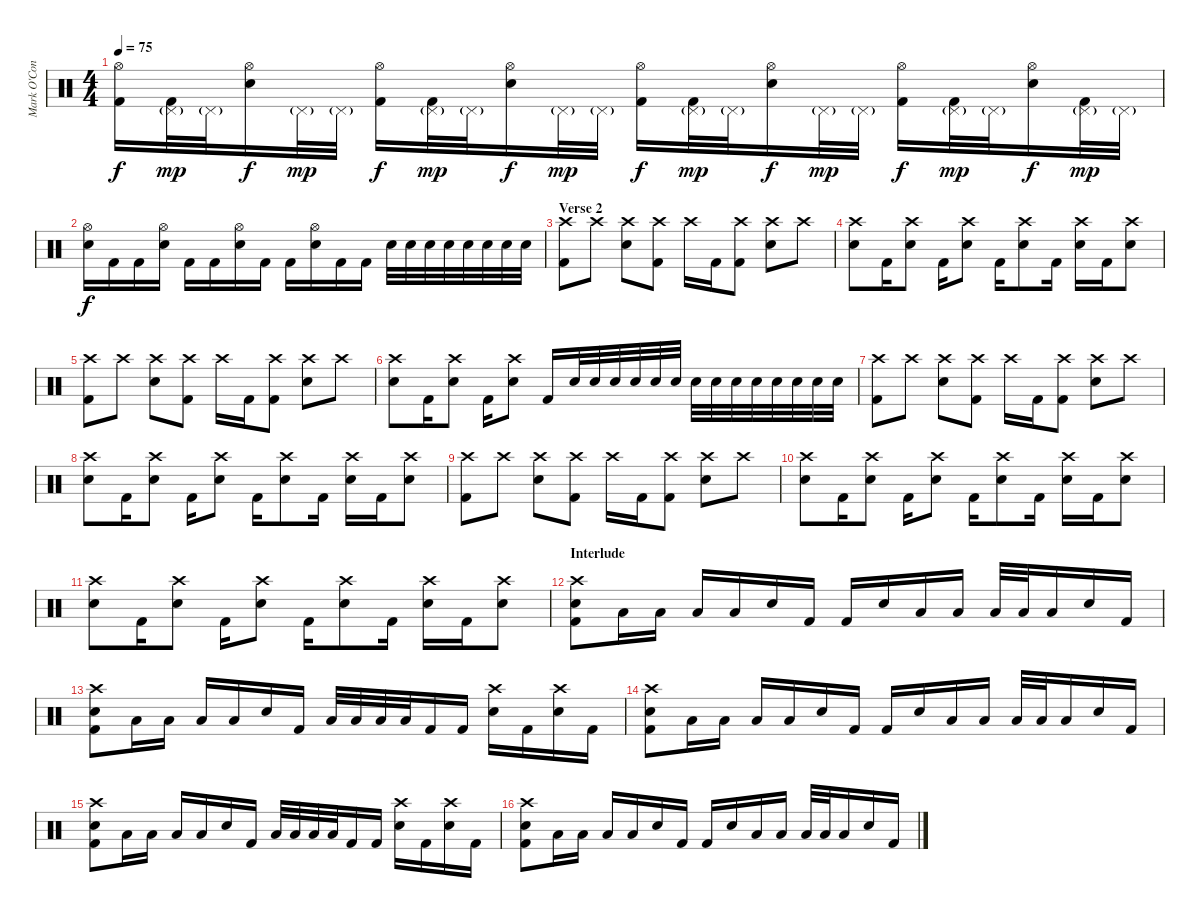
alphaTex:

\track ("Mark O'Connell (Drums)" "Mark O'Con") {instrument percussion}
\staff {score}
\articulation defaults
\ts (4 4)
\tempo 75
\clef neutral
\ks c
("Hi-Hat (open)" "Kick (hit) 2").16{dy f} ("Pedal Hi-Hat (hit)"{g} "Kick (hit) 2").32{dy mp} "Pedal Hi-Hat (hit)"{g}.32 ("Hi-Hat (open)" "Electric Snare (hit)").16{dy f} "Pedal Hi-Hat (hit)"{g}.32{dy mp} "Pedal Hi-Hat (hit)"{g}.32 ("Hi-Hat (open)" "Kick (hit) 2").16{dy f} ("Pedal Hi-Hat (hit)"{g} "Kick (hit) 2").32{dy mp} "Pedal Hi-Hat (hit)"{g}.32 ("Hi-Hat (open)" "Electric Snare (hit)").16{dy f} "Pedal Hi-Hat (hit)"{g}.32{dy mp} "Pedal Hi-Hat (hit)"{g}.32 ("Hi-Hat (open)" "Kick (hit) 2").16{dy f} ("Pedal Hi-Hat (hit)"{g} "Kick (hit) 2").32{dy mp} "Pedal Hi-Hat (hit)"{g}.32 ("Hi-Hat (open)" "Electric Snare (hit)").16{dy f} "Pedal Hi-Hat (hit)"{g}.32{dy mp} "Pedal Hi-Hat (hit)"{g}.32 ("Hi-Hat (open)" "Kick (hit) 2").16{dy f} ("Pedal Hi-Hat (hit)"{g} "Kick (hit) 2").32{dy mp} "Pedal Hi-Hat (hit)"{g}.32 ("Hi-Hat (open)" "Electric Snare (hit)").16{dy f} ("Pedal Hi-Hat (hit)"{g} "Kick (hit) 2").32{dy mp} "Pedal Hi-Hat (hit)"{g}.32 |
("Hi-Hat (open)" "Electric Snare (hit)").16{dy f} "Kick (hit) 2".16 "Kick (hit) 2".16 ("Hi-Hat (open)" "Electric Snare (hit)").16 "Kick (hit) 2".16 "Kick (hit) 2".16 ("Hi-Hat (open)" "Electric Snare (hit)").16 "Kick (hit) 2".16 "Kick (hit) 2".16 ("Hi-Hat (open)" "Electric Snare (hit)").16 "Kick (hit) 2".16 "Kick (hit) 2".16 "Electric Snare (hit)".32 "Electric Snare (hit)".32 "Electric Snare (hit)".32 "Electric Snare (hit)".32 "Electric Snare (hit)".32 "Electric Snare (hit)".32 "Electric Snare (hit)".32 "Electric Snare (hit)".32 |
\section ("" "Verse 2")
("Crash high (hit)" "Kick (hit) 2").8 "Crash high (hit)".8 ("Crash high (hit)" "Electric Snare (hit)").8 ("Crash high (hit)" "Kick (hit) 2").8 "Crash high (hit)".16 "Kick (hit) 2".16 ("Crash high (hit)" "Kick (hit) 2").8 ("Crash high (hit)" "Electric Snare (hit)").8 "Crash high (hit)".8 |
("Crash high (hit)" "Electric Snare (hit)").8 "Kick (hit) 2".16 ("Crash high (hit)" "Electric Snare (hit)").8 "Kick (hit) 2".16 ("Crash high (hit)" "Electric Snare (hit)").8 "Kick (hit) 2".16 ("Crash high (hit)" "Electric Snare (hit)").8 "Kick (hit) 2".16 ("Crash high (hit)" "Electric Snare (hit)").16 "Kick (hit) 2".16 ("Crash high (hit)" "Electric Snare (hit)").8 |
("Crash high (hit)" "Kick (hit) 2").8 "Crash high (hit)".8 ("Crash high (hit)" "Electric Snare (hit)").8 ("Crash high (hit)" "Kick (hit) 2").8 "Crash high (hit)".16 "Kick (hit) 2".16 ("Crash high (hit)" "Kick (hit) 2").8 ("Crash high (hit)" "Electric Snare (hit)").8 "Crash high (hit)".8 |
("Crash high (hit)" "Electric Snare (hit)").8 "Kick (hit) 2".16 ("Crash high (hit)" "Electric Snare (hit)").8 "Kick (hit) 2".16 ("Crash high (hit)" "Electric Snare (hit)").8 "Kick (hit) 2".16 "Electric Snare (hit)".32 "Electric Snare (hit)".32 "Electric Snare (hit)".32 "Electric Snare (hit)".32 "Electric Snare (hit)".32 "Electric Snare (hit)".32 "Electric Snare (hit)".32 "Electric Snare (hit)".32 "Electric Snare (hit)".32 "Electric Snare (hit)".32 "Electric Snare (hit)".32 "Electric Snare (hit)".32 "Electric Snare (hit)".32 "Electric Snare (hit)".32 |
("Crash high (hit)" "Kick (hit) 2").8 "Crash high (hit)".8 ("Crash high (hit)" "Electric Snare (hit)").8 ("Crash high (hit)" "Kick (hit) 2").8 "Crash high (hit)".16 "Kick (hit) 2".16 ("Crash high (hit)" "Kick (hit) 2").8 ("Crash high (hit)" "Electric Snare (hit)").8 "Crash high (hit)".8 |
("Crash high (hit)" "Electric Snare (hit)").8 "Kick (hit) 2".16 ("Crash high (hit)" "Electric Snare (hit)").8 "Kick (hit) 2".16 ("Crash high (hit)" "Electric Snare (hit)").8 "Kick (hit) 2".16 ("Crash high (hit)" "Electric Snare (hit)").8 "Kick (hit) 2".16 ("Crash high (hit)" "Electric Snare (hit)").16 "Kick (hit) 2".16 ("Crash high (hit)" "Electric Snare (hit)").8 |
("Crash high (hit)" "Kick (hit) 2").8 "Crash high (hit)".8 ("Crash high (hit)" "Electric Snare (hit)").8 ("Crash high (hit)" "Kick (hit) 2").8 "Crash high (hit)".16 "Kick (hit) 2".16 ("Crash high (hit)" "Kick (hit) 2").8 ("Crash high (hit)" "Electric Snare (hit)").8 "Crash high (hit)".8 |
("Crash high (hit)" "Electric Snare (hit)").8 "Kick (hit) 2".16 ("Crash high (hit)" "Electric Snare (hit)").8 "Kick (hit) 2".16 ("Crash high (hit)" "Electric Snare (hit)").8 "Kick (hit) 2".16 ("Crash high (hit)" "Electric Snare (hit)").8 "Kick (hit) 2".16 ("Crash high (hit)" "Electric Snare (hit)").16 "Kick (hit) 2".16 ("Crash high (hit)" "Electric Snare (hit)").8 |
("Crash high (hit)" "Electric Snare (hit)").8 "Kick (hit) 2".16 ("Crash high (hit)" "Electric Snare (hit)").8 "Kick (hit) 2".16 ("Crash high (hit)" "Electric Snare (hit)").8 "Kick (hit) 2".16 ("Crash high (hit)" "Electric Snare (hit)").8 "Kick (hit) 2".16 ("Crash high (hit)" "Electric Snare (hit)").16 "Kick (hit) 2".16 ("Crash high (hit)" "Electric Snare (hit)").8 |
\section ("" "Interlude")
("Crash high (hit)" "Electric Snare (hit)" "Kick (hit) 2").8 "Low Tom (hit)".16 "Low Tom (hit)".16 "Low Tom (hit)".16 "Low Tom (hit)".16 "Electric Snare (hit)".16 "Kick (hit) 2".16 "Kick (hit) 2".16 "Electric Snare (hit)".16 "Low Tom (hit)".16 "Low Tom (hit)".16 "Low Tom (hit)".32 "Low Tom (hit)".32 "Low Tom (hit)".16 "Electric Snare (hit)".16 "Kick (hit) 2".16 |
("Crash high (hit)" "Electric Snare (hit)" "Kick (hit) 2").8 "Low Tom (hit)".16 "Low Tom (hit)".16 "Low Tom (hit)".16 "Low Tom (hit)".16 "Electric Snare (hit)".16 "Kick (hit) 2".16 "Low Tom (hit)".32 "Low Tom (hit)".32 "Low Tom (hit)".32 "Low Tom (hit)".32 "Kick (hit) 2".16 "Kick (hit) 2".16 ("Crash high (hit)" "Electric Snare (hit)").16 "Kick (hit) 2".16 ("Crash high (hit)" "Electric Snare (hit)").16 "Kick (hit) 2".16 |
("Crash high (hit)" "Electric Snare (hit)" "Kick (hit) 2").8 "Low Tom (hit)".16 "Low Tom (hit)".16 "Low Tom (hit)".16 "Low Tom (hit)".16 "Electric Snare (hit)".16 "Kick (hit) 2".16 "Kick (hit) 2".16 "Electric Snare (hit)".16 "Low Tom (hit)".16 "Low Tom (hit)".16 "Low Tom (hit)".32 "Low Tom (hit)".32 "Low Tom (hit)".16 "Electric Snare (hit)".16 "Kick (hit) 2".16 |
("Crash high (hit)" "Electric Snare (hit)" "Kick (hit) 2").8 "Low Tom (hit)".16 "Low Tom (hit)".16 "Low Tom (hit)".16 "Low Tom (hit)".16 "Electric Snare (hit)".16 "Kick (hit) 2".16 "Low Tom (hit)".32 "Low Tom (hit)".32 "Low Tom (hit)".32 "Low Tom (hit)".32 "Kick (hit) 2".16 "Kick (hit) 2".16 ("Crash high (hit)" "Electric Snare (hit)").16 "Kick (hit) 2".16 ("Crash high (hit)" "Electric Snare (hit)").16 "Kick (hit) 2".16 |
("Crash high (hit)" "Electric Snare (hit)" "Kick (hit) 2").8 "Low Tom (hit)".16 "Low Tom (hit)".16 "Low Tom (hit)".16 "Low Tom (hit)".16 "Electric Snare (hit)".16 "Kick (hit) 2".16 "Kick (hit) 2".16 "Electric Snare (hit)".16 "Low Tom (hit)".16 "Low Tom (hit)".16 "Low Tom (hit)".32 "Low Tom (hit)".32 "Low Tom (hit)".16 "Electric Snare (hit)".16 "Kick (hit) 2".16
